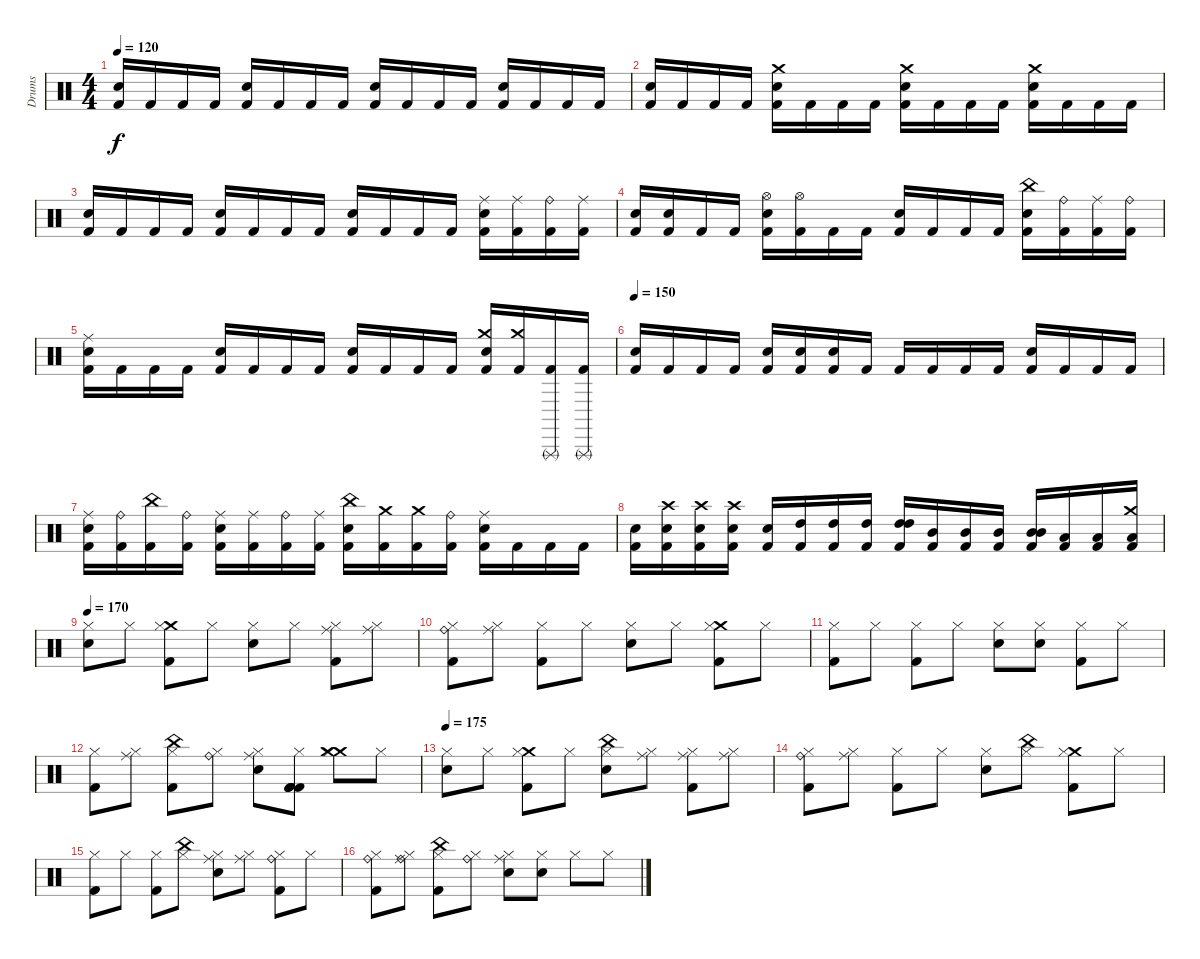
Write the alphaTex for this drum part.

\track ("Drums" "Drums") {instrument percussion}
\staff {score}
\articulation defaults
\ts (4 4)
\tempo 120
\clef neutral
\ks c
("Electric Snare (hit)" "Kick (hit) 2").16{dy f} "Kick (hit) 2".16 "Kick (hit) 2".16 "Kick (hit) 2".16 ("Electric Snare (hit)" "Kick (hit) 2").16 "Kick (hit) 2".16 "Kick (hit) 2".16 "Kick (hit) 2".16 ("Electric Snare (hit)" "Kick (hit) 2").16 "Kick (hit) 2".16 "Kick (hit) 2".16 "Kick (hit) 2".16 ("Electric Snare (hit)" "Kick (hit) 2").16 "Kick (hit) 2".16 "Kick (hit) 2".16 "Kick (hit) 2".16 |
("Electric Snare (hit)" "Kick (hit) 2").16 "Kick (hit) 2".16 "Kick (hit) 2".16 "Kick (hit) 2".16 ("Crash medium (hit)" "Electric Snare (hit)" "Kick (hit) 2").16 "Kick (hit) 2".16 "Kick (hit) 2".16 "Kick (hit) 2".16 ("Crash medium (hit)" "Electric Snare (hit)" "Kick (hit) 2").16 "Kick (hit) 2".16 "Kick (hit) 2".16 "Kick (hit) 2".16 ("Crash medium (hit)" "Electric Snare (hit)" "Kick (hit) 2").16 "Kick (hit) 2".16 "Kick (hit) 2".16 "Kick (hit) 2".16 |
("Electric Snare (hit)" "Kick (hit) 2").16 "Kick (hit) 2".16 "Kick (hit) 2".16 "Kick (hit) 2".16 ("Electric Snare (hit)" "Kick (hit) 2").16 "Kick (hit) 2".16 "Kick (hit) 2".16 "Kick (hit) 2".16 ("Electric Snare (hit)" "Kick (hit) 2").16 "Kick (hit) 2".16 "Kick (hit) 2".16 "Kick (hit) 2".16 ("Ride (middle)" "Electric Snare (hit)" "Kick (hit) 2").16 ("Ride (middle)" "Kick (hit) 2").16 ("Ride (bell)" "Kick (hit) 2").16 ("Ride (middle)" "Kick (hit) 2").16 |
("Electric Snare (hit)" "Kick (hit) 2").16 ("Electric Snare (hit)" "Kick (hit) 2").16 "Kick (hit) 2".16 "Kick (hit) 2".16 ("Hi-Hat (open)" "Electric Snare (hit)" "Kick (hit) 2").16 ("Hi-Hat (open)" "Kick (hit) 2").16 "Kick (hit) 2".16 "Kick (hit) 2".16 ("Electric Snare (hit)" "Kick (hit) 2").16 "Kick (hit) 2".16 "Kick (hit) 2".16 "Kick (hit) 2".16 ("China (hit)" "Electric Snare (hit)" "Kick (hit) 2").16 ("Ride (bell)" "Kick (hit) 2").16 ("Ride (middle)" "Kick (hit) 2").16 ("Ride (bell)" "Kick (hit) 2").16 |
("Ride (middle)" "Electric Snare (hit)" "Kick (hit) 2").16 "Kick (hit) 2".16 "Kick (hit) 2".16 "Kick (hit) 2".16 ("Electric Snare (hit)" "Kick (hit) 2").16 "Kick (hit) 2".16 "Kick (hit) 2".16 "Kick (hit) 2".16 ("Electric Snare (hit)" "Kick (hit) 2").16 "Kick (hit) 2".16 "Kick (hit) 2".16 "Kick (hit) 2".16 ("Crash medium (hit)" "Electric Snare (hit)" "Kick (hit) 2").16 ("Crash medium (hit)" "Kick (hit) 2").16 ("Triangle (rnute)" "Kick (hit) 2").16 ("Triangle (rnute)" "Kick (hit) 2").16 |
\tempo 150
("Electric Snare (hit)" "Kick (hit) 2").16 "Kick (hit) 2".16 "Kick (hit) 2".16 "Kick (hit) 2".16 ("Electric Snare (hit)" "Kick (hit) 2").16 ("Electric Snare (hit)" "Kick (hit) 2").16 ("Electric Snare (hit)" "Kick (hit) 2").16 "Kick (hit) 2".16 "Kick (hit) 2".16 "Kick (hit) 2".16 "Kick (hit) 2".16 "Kick (hit) 2".16 ("Electric Snare (hit)" "Kick (hit) 2").16 "Kick (hit) 2".16 "Kick (hit) 2".16 "Kick (hit) 2".16 |
("Ride (middle)" "Electric Snare (hit)" "Kick (hit) 2").16 ("Ride (bell)" "Kick (hit) 2").16 ("China (hit)" "Kick (hit) 2").16 ("Ride (bell)" "Kick (hit) 2").16 ("Ride (middle)" "Electric Snare (hit)" "Kick (hit) 2").16 ("Ride (middle)" "Kick (hit) 2").16 ("Ride (bell)" "Kick (hit) 2").16 ("Ride (middle)" "Kick (hit) 2").16 ("China (hit)" "Electric Snare (hit)" "Kick (hit) 2").16 ("Crash medium (hit)" "Kick (hit) 2").16 ("Crash medium (hit)" "Kick (hit) 2").16 ("Ride (bell)" "Kick (hit) 2").16 ("Ride (middle)" "Electric Snare (hit)" "Kick (hit) 2").16 "Kick (hit) 2".16 "Kick (hit) 2".16 "Kick (hit) 2".16 |
("Electric Snare (hit)" "Kick (hit) 2").16 ("Electric Snare (hit)" "Crash high (hit)" "Kick (hit) 2").16 ("Electric Snare (hit)" "Crash high (hit)" "Kick (hit) 2").16 ("Crash high (hit)" "Electric Snare (hit)" "Kick (hit) 2").16 ("Electric Snare (hit)" "Kick (hit) 2").16 ("High Tom (hit)" "Kick (hit) 2").16 ("High Tom (hit)" "Kick (hit) 2").16 ("High Tom (hit)" "Kick (hit) 2").16 ("High Tom (hit)" "High Tom (hit)" "Kick (hit) 2").16 ("Mid Tom (hit)" "Kick (hit) 2").16 ("Mid Tom (hit)" "Kick (hit) 2").16 ("Mid Tom (hit)" "Kick (hit) 2").16 ("Mid Tom (hit)" "Mid Tom (hit)" "Kick (hit) 2").16 ("Low Tom (hit)" "Kick (hit) 2").16 ("Low Tom (hit)" "Kick (hit) 2").16 ("Crash medium (hit)" "Low Tom (hit)" "Kick (hit) 2").16 |
\tempo 170
("Electric Snare (hit)" "Hi-Hat (closed)").8 "Hi-Hat (closed)".8 ("Crash medium (hit)" "Kick (hit) 2" "Hi-Hat (closed)").8 "Hi-Hat (closed)".8 ("Electric Snare (hit)" "Hi-Hat (closed)").8 "Hi-Hat (closed)".8 ("Kick (hit) 2" "Ride (middle)" "Hi-Hat (closed)").8 ("Ride (middle)" "Hi-Hat (closed)").8 |
("Kick (hit) 2" "Ride (bell)" "Hi-Hat (closed)").8 ("Ride (middle)" "Hi-Hat (closed)").8 ("Kick (hit) 2" "Hi-Hat (closed)").8 "Hi-Hat (closed)".8 ("Electric Snare (hit)" "Hi-Hat (closed)").8 "Hi-Hat (closed)".8 ("Crash medium (hit)" "Kick (hit) 2" "Hi-Hat (closed)").8 "Hi-Hat (closed)".8 |
("Kick (hit) 2" "Hi-Hat (closed)").8 "Hi-Hat (closed)".8 ("Kick (hit) 2" "Hi-Hat (closed)").8 "Hi-Hat (closed)".8 ("Electric Snare (hit)" "Hi-Hat (closed)").8 ("Electric Snare (hit)" "Hi-Hat (closed)").8 ("Kick (hit) 2" "Hi-Hat (closed)").8 "Hi-Hat (closed)".8 |
("Kick (hit) 2" "Hi-Hat (closed)").8 ("Ride (middle)" "Hi-Hat (closed)").8 ("Kick (hit) 2" "China (hit)" "Hi-Hat (closed)").8 ("Ride (bell)" "Hi-Hat (closed)").8 ("Ride (middle)" "Electric Snare (hit)" "Hi-Hat (closed)").8 ("Kick (hit) 2" "Kick (hit) 2" "Kick (hit) 2" "Kick (hit) 2" "Hi-Hat (closed)").8 ("Crash medium (hit)" "Crash medium (hit)" "Hi-Hat (closed)").8 "Hi-Hat (closed)".8 |
\tempo 175
("Electric Snare (hit)" "Hi-Hat (closed)").8 "Hi-Hat (closed)".8 ("Crash medium (hit)" "Kick (hit) 2" "Hi-Hat (closed)").8 "Hi-Hat (closed)".8 ("China (hit)" "Electric Snare (hit)" "Hi-Hat (closed)").8 ("Ride (middle)" "Hi-Hat (closed)").8 ("Kick (hit) 2" "Ride (middle)" "Hi-Hat (closed)").8 ("Ride (middle)" "Hi-Hat (closed)").8 |
("Kick (hit) 2" "Ride (bell)" "Hi-Hat (closed)").8 ("Ride (middle)" "Hi-Hat (closed)").8 ("Kick (hit) 2" "Hi-Hat (closed)").8 "Hi-Hat (closed)".8 ("Electric Snare (hit)" "Hi-Hat (closed)").8 ("China (hit)" "Hi-Hat (closed)").8 ("Crash medium (hit)" "Kick (hit) 2" "Hi-Hat (closed)").8 "Hi-Hat (closed)".8 |
("Kick (hit) 2" "Hi-Hat (closed)").8 "Hi-Hat (closed)".8 ("Kick (hit) 2" "Hi-Hat (closed)").8 ("China (hit)" "Hi-Hat (closed)").8 ("Ride (middle)" "Electric Snare (hit)" "Hi-Hat (closed)").8 ("Ride (middle)" "Hi-Hat (closed)").8 ("Ride (bell)" "Kick (hit) 2" "Hi-Hat (closed)").8 "Hi-Hat (closed)".8 |
("Ride (bell)" "Kick (hit) 2" "Hi-Hat (closed)").8 ("Ride (bell)" "Ride (middle)" "Hi-Hat (closed)").8 ("Kick (hit) 2" "China (hit)" "Hi-Hat (closed)").8 ("Ride (bell)" "Hi-Hat (closed)").8 ("Ride (middle)" "Electric Snare (hit)" "Hi-Hat (closed)").8 ("Electric Snare (hit)" "Hi-Hat (closed)").8 "Hi-Hat (closed)".8 "Hi-Hat (closed)".8
